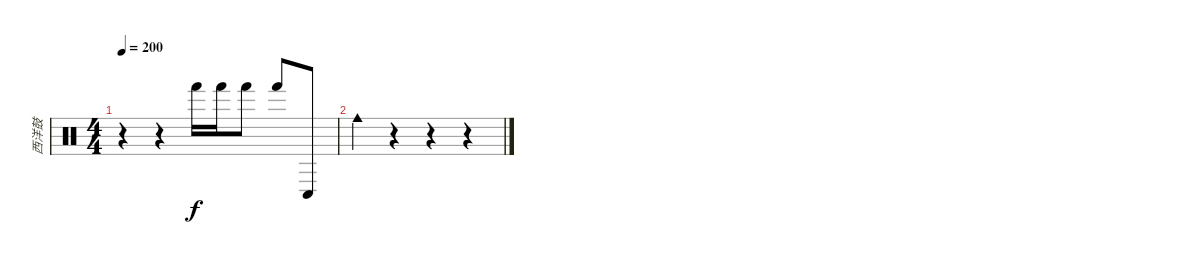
\track ("西洋鼓" "西洋鼓") {instrument percussion}
\staff {score}
\articulation defaults
\ts (4 4)
\tempo 200
\clef neutral
\ks c
r.4{dy f} r.4 "Hand (hit)".16 "Hand (hit)".16 "Hand (hit)".8 "Hand (hit)".8 "Conga low (hit)".8 |
"Cowbell medium (hit)".4 r.4 r.4 r.4
